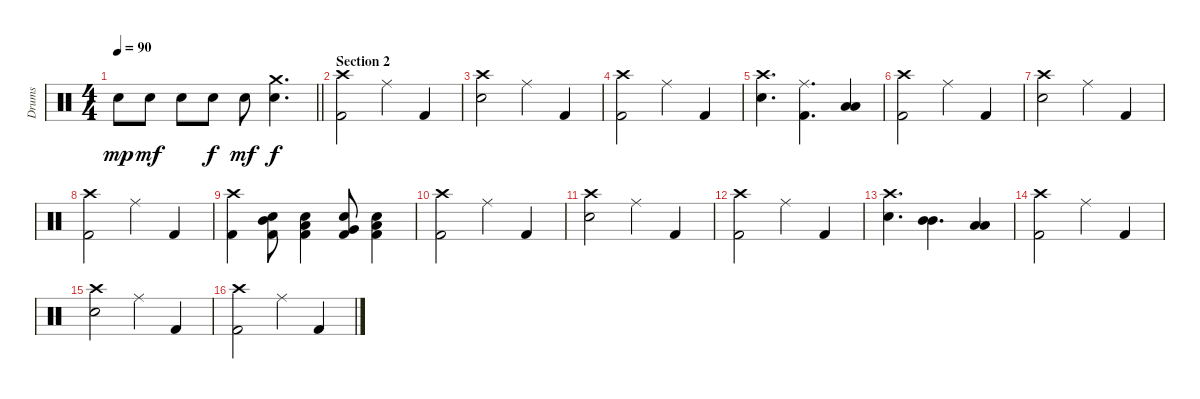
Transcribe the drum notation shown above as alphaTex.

\track ("Drums" "Drums") {instrument percussion}
\staff {score}
\articulation defaults
\ts (4 4)
\tempo 90
\clef neutral
\barLineRight lightlight
\ks c "Electric Snare (hit)".8{dy mp} "Electric Snare (hit)".8{dy mf} "Electric Snare (hit)".8 "Electric Snare (hit)".8{dy f} "Electric Snare (hit)".8{dy mf}
("Crash medium (hit)" "Electric Snare (hit)").4{d dy f} |
\section ("" "Section 2")
("Crash high (hit)" "Kick (hit) 2").2 "Ride (middle)".4 "Kick (hit) 2".4 |
("Crash high (hit)" "Electric Snare (hit)").2 "Ride (middle)".4 "Kick (hit) 2".4 |
("Crash high (hit)" "Kick (hit) 2").2 "Ride (middle)".4 "Kick (hit) 2".4 |
("Crash high (hit)" "Electric Snare (hit)").4{d} ("Ride (middle)" "Kick (hit) 2").4{d} ("Low Tom (hit)" "Low Tom (hit)").4{bu 60} |
("Crash high (hit)" "Kick (hit) 2").2 "Ride (middle)".4 "Kick (hit) 2".4 |
("Crash high (hit)" "Electric Snare (hit)").2 "Ride (middle)".4 "Kick (hit) 2".4 |
("Crash high (hit)" "Kick (hit) 2").2 "Ride (middle)".4 "Kick (hit) 2".4 |
("Crash high (hit)" "Kick (hit) 2").4 ("Mid Tom (hit)" "Electric Snare (hit)" "Kick (hit) 2").8 ("Low Tom (hit)" "Electric Snare (hit)" "Kick (hit) 2").4 ("Very Low Tom (hit)" "Electric Snare (hit)" "Kick (hit) 2").8 ("Low Floor Tom (hit)" "Electric Snare (hit)" "Kick (hit) 2").4 |
("Crash high (hit)" "Kick (hit) 2").2 "Ride (middle)".4 "Kick (hit) 2".4 |
("Crash high (hit)" "Electric Snare (hit)").2 "Ride (middle)".4 "Kick (hit) 2".4 |
("Crash high (hit)" "Kick (hit) 2").2 "Ride (middle)".4 "Kick (hit) 2".4 |
("Crash high (hit)" "Electric Snare (hit)").4{d} ("Mid Tom (hit)" "Mid Tom (hit)").4{d bu 60} ("Low Tom (hit)" "Low Tom (hit)").4{bu 60} |
("Crash high (hit)" "Kick (hit) 2").2 "Ride (middle)".4 "Kick (hit) 2".4 |
("Crash high (hit)" "Electric Snare (hit)").2 "Ride (middle)".4 "Kick (hit) 2".4 |
("Crash high (hit)" "Kick (hit) 2").2 "Ride (middle)".4 "Kick (hit) 2".4
